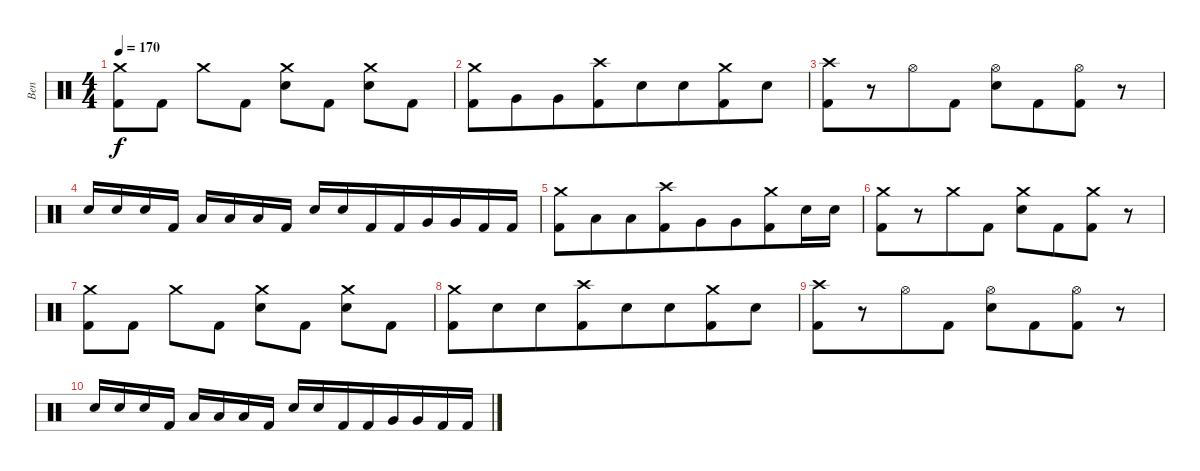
\track ("Ben" "Ben") {instrument percussion}
\staff {score}
\articulation defaults
\ts (4 4)
\tempo 170
\clef neutral
\ks c
("Crash medium (hit)" "Kick (hit) 2").8{dy f} "Kick (hit) 2".8 "Crash medium (hit)".8{beam merge} "Kick (hit) 2".8 ("Crash medium (hit)" "Electric Snare (hit)").8 "Kick (hit) 2".8 ("Crash medium (hit)" "Electric Snare (hit)").8 "Kick (hit) 2".8 |
("Crash medium (hit)" "Kick (hit) 2").8 "Very Low Tom (hit)".8{beam merge} "Very Low Tom (hit)".8{beam merge} ("Crash high (hit)" "Kick (hit) 2").8{beam merge} "Electric Snare (hit)".8 "Electric Snare (hit)".8{beam merge} ("Kick (hit) 2" "Crash medium (hit)").8 "Electric Snare (hit)".8 |
("Crash high (hit)" "Kick (hit) 2").8{beam merge} r.8 "Hi-Hat (open)".8 "Kick (hit) 2".8 ("Hi-Hat (open)" "Electric Snare (hit)").8{beam merge} "Kick (hit) 2".8{beam merge} ("Hi-Hat (open)" "Kick (hit) 2").8{beam merge} r.8 |
"Electric Snare (hit)".16{beam merge} "Electric Snare (hit)".16{beam merge} "Electric Snare (hit)".16{beam merge} "Kick (hit) 2".16 "Low Tom (hit)".16 "Low Tom (hit)".16{beam merge} "Low Tom (hit)".16{beam merge} "Kick (hit) 2".16 "Electric Snare (hit)".16{beam merge} "Electric Snare (hit)".16{beam merge} "Kick (hit) 2".16{beam merge} "Kick (hit) 2".16{beam merge} "Very Low Tom (hit)".16{beam merge} "Very Low Tom (hit)".16{beam merge} "Kick (hit) 2".16{beam merge} "Kick (hit) 2".16 |
("Crash medium (hit)" "Kick (hit) 2").8 "Low Floor Tom (hit)".8{beam merge} "Low Floor Tom (hit)".8{beam merge} ("Crash high (hit)" "Kick (hit) 2").8{beam merge} "Very Low Tom (hit)".8 "Very Low Tom (hit)".8{beam merge} ("Kick (hit) 2" "Crash medium (hit)").8 "Electric Snare (hit)".16{beam merge} "Electric Snare (hit)".16 |
("Crash medium (hit)" "Kick (hit) 2").8{beam merge} r.8 "Crash medium (hit)".8 "Kick (hit) 2".8 ("Crash medium (hit)" "Electric Snare (hit)").8{beam merge} "Kick (hit) 2".8{beam merge} ("Crash medium (hit)" "Kick (hit) 2").8{beam merge} r.8 |
("Crash medium (hit)" "Kick (hit) 2").8 "Kick (hit) 2".8 "Crash medium (hit)".8{beam merge} "Kick (hit) 2".8 ("Crash medium (hit)" "Electric Snare (hit)").8 "Kick (hit) 2".8 ("Crash medium (hit)" "Electric Snare (hit)").8 "Kick (hit) 2".8 |
("Crash medium (hit)" "Kick (hit) 2").8 "Electric Snare (hit)".8{beam merge} "Electric Snare (hit)".8{beam merge} ("Crash high (hit)" "Kick (hit) 2").8{beam merge} "Electric Snare (hit)".8 "Electric Snare (hit)".8{beam merge} ("Kick (hit) 2" "Crash medium (hit)").8 "Electric Snare (hit)".8 |
("Crash high (hit)" "Kick (hit) 2").8{beam merge} r.8 "Hi-Hat (open)".8 "Kick (hit) 2".8 ("Hi-Hat (open)" "Electric Snare (hit)").8{beam merge} "Kick (hit) 2".8{beam merge} ("Hi-Hat (open)" "Kick (hit) 2").8{beam merge} r.8 |
"Electric Snare (hit)".16{beam merge} "Electric Snare (hit)".16{beam merge} "Electric Snare (hit)".16{beam merge} "Kick (hit) 2".16 "Low Tom (hit)".16 "Low Tom (hit)".16{beam merge} "Low Tom (hit)".16{beam merge} "Kick (hit) 2".16 "Electric Snare (hit)".16{beam merge} "Electric Snare (hit)".16{beam merge} "Kick (hit) 2".16{beam merge} "Kick (hit) 2".16{beam merge} "Very Low Tom (hit)".16{beam merge} "Very Low Tom (hit)".16{beam merge} "Kick (hit) 2".16{beam merge} "Kick (hit) 2".16
